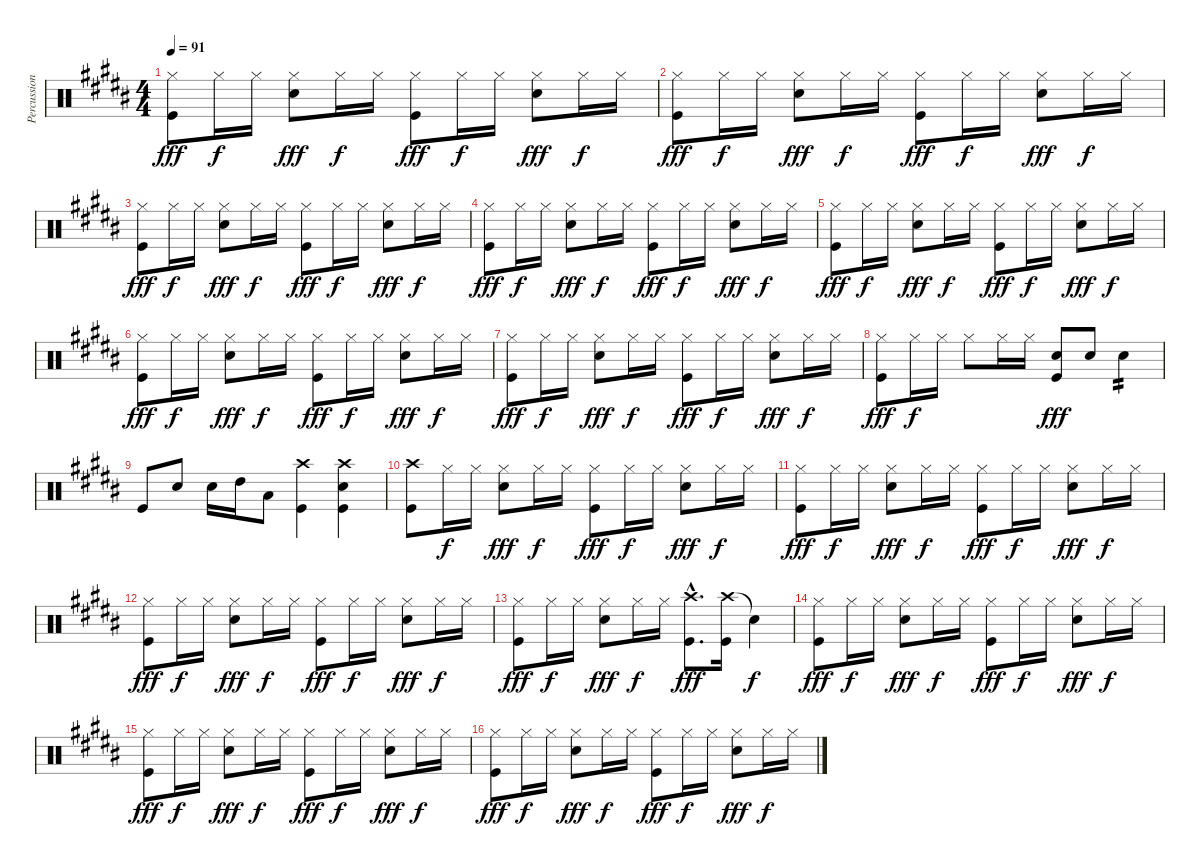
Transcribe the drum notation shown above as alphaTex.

\track ("Percussion" "Percussion") {instrument percussion}
\staff {score}
\articulation defaults
\ts (4 4)
\tempo 91
\clef neutral
\ks b
("Hi-Hat (closed)" "Kick (hit)").8{dy fff} "Hi-Hat (closed)".16{dy f} "Hi-Hat (closed)".16 ("Hi-Hat (closed)" "Electric Snare (hit)").8{dy fff} "Hi-Hat (closed)".16{dy f} "Hi-Hat (closed)".16 ("Hi-Hat (closed)" "Kick (hit)").8{dy fff} "Hi-Hat (closed)".16{dy f} "Hi-Hat (closed)".16 ("Hi-Hat (closed)" "Electric Snare (hit)").8{dy fff} "Hi-Hat (closed)".16{dy f} "Hi-Hat (closed)".16 |
("Hi-Hat (closed)" "Kick (hit)").8{dy fff} "Hi-Hat (closed)".16{dy f} "Hi-Hat (closed)".16 ("Hi-Hat (closed)" "Electric Snare (hit)").8{dy fff} "Hi-Hat (closed)".16{dy f} "Hi-Hat (closed)".16 ("Hi-Hat (closed)" "Kick (hit)").8{dy fff} "Hi-Hat (closed)".16{dy f} "Hi-Hat (closed)".16 ("Hi-Hat (closed)" "Electric Snare (hit)").8{dy fff} "Hi-Hat (closed)".16{dy f} "Hi-Hat (closed)".16 |
("Hi-Hat (closed)" "Kick (hit)").8{dy fff} "Hi-Hat (closed)".16{dy f} "Hi-Hat (closed)".16 ("Hi-Hat (closed)" "Electric Snare (hit)").8{dy fff} "Hi-Hat (closed)".16{dy f} "Hi-Hat (closed)".16 ("Hi-Hat (closed)" "Kick (hit)").8{dy fff} "Hi-Hat (closed)".16{dy f} "Hi-Hat (closed)".16 ("Hi-Hat (closed)" "Electric Snare (hit)").8{dy fff} "Hi-Hat (closed)".16{dy f} "Hi-Hat (closed)".16 |
("Hi-Hat (closed)" "Kick (hit)").8{dy fff} "Hi-Hat (closed)".16{dy f} "Hi-Hat (closed)".16 ("Hi-Hat (closed)" "Electric Snare (hit)").8{dy fff} "Hi-Hat (closed)".16{dy f} "Hi-Hat (closed)".16 ("Hi-Hat (closed)" "Kick (hit)").8{dy fff} "Hi-Hat (closed)".16{dy f} "Hi-Hat (closed)".16 ("Hi-Hat (closed)" "Electric Snare (hit)").8{dy fff} "Hi-Hat (closed)".16{dy f} "Hi-Hat (closed)".16 |
("Hi-Hat (closed)" "Kick (hit)").8{dy fff} "Hi-Hat (closed)".16{dy f} "Hi-Hat (closed)".16 ("Hi-Hat (closed)" "Electric Snare (hit)").8{dy fff} "Hi-Hat (closed)".16{dy f} "Hi-Hat (closed)".16 ("Hi-Hat (closed)" "Kick (hit)").8{dy fff} "Hi-Hat (closed)".16{dy f} "Hi-Hat (closed)".16 ("Hi-Hat (closed)" "Electric Snare (hit)").8{dy fff} "Hi-Hat (closed)".16{dy f} "Hi-Hat (closed)".16 |
("Hi-Hat (closed)" "Kick (hit)").8{dy fff} "Hi-Hat (closed)".16{dy f} "Hi-Hat (closed)".16 ("Hi-Hat (closed)" "Electric Snare (hit)").8{dy fff} "Hi-Hat (closed)".16{dy f} "Hi-Hat (closed)".16 ("Hi-Hat (closed)" "Kick (hit)").8{dy fff} "Hi-Hat (closed)".16{dy f} "Hi-Hat (closed)".16 ("Hi-Hat (closed)" "Electric Snare (hit)").8{dy fff} "Hi-Hat (closed)".16{dy f} "Hi-Hat (closed)".16 |
("Hi-Hat (closed)" "Kick (hit)").8{dy fff} "Hi-Hat (closed)".16{dy f} "Hi-Hat (closed)".16 ("Hi-Hat (closed)" "Electric Snare (hit)").8{dy fff} "Hi-Hat (closed)".16{dy f} "Hi-Hat (closed)".16 ("Hi-Hat (closed)" "Kick (hit)").8{dy fff} "Hi-Hat (closed)".16{dy f} "Hi-Hat (closed)".16 ("Hi-Hat (closed)" "Electric Snare (hit)").8{dy fff} "Hi-Hat (closed)".16{dy f} "Hi-Hat (closed)".16 |
("Hi-Hat (closed)" "Kick (hit)").8{dy fff} "Hi-Hat (closed)".16{dy f} "Hi-Hat (closed)".16 "Hi-Hat (closed)".8 "Hi-Hat (closed)".16 "Hi-Hat (closed)".16 ("Electric Snare (hit)" "Kick (hit)").8{dy fff} "Electric Snare (hit)".8 "Electric Snare (hit)".4{tp 2} |
"Kick (hit)".8 "Electric Snare (hit)".8 "Electric Snare (hit)".16 "High Tom (hit)".16 "Low Floor Tom (hit)".8 ("Crash high (hit)" "Kick (hit)").4 ("Crash high (hit)" "Electric Snare (hit)" "Kick (hit)").4 |
("Crash high (hit)" "Kick (hit)").8 "Hi-Hat (closed)".16{dy f} "Hi-Hat (closed)".16 ("Hi-Hat (closed)" "Electric Snare (hit)").8{dy fff} "Hi-Hat (closed)".16{dy f} "Hi-Hat (closed)".16 ("Hi-Hat (closed)" "Kick (hit)").8{dy fff} "Hi-Hat (closed)".16{dy f} "Hi-Hat (closed)".16 ("Hi-Hat (closed)" "Electric Snare (hit)").8{dy fff} "Hi-Hat (closed)".16{dy f} "Hi-Hat (closed)".16 |
("Hi-Hat (closed)" "Kick (hit)").8{dy fff} "Hi-Hat (closed)".16{dy f} "Hi-Hat (closed)".16 ("Hi-Hat (closed)" "Electric Snare (hit)").8{dy fff} "Hi-Hat (closed)".16{dy f} "Hi-Hat (closed)".16 ("Hi-Hat (closed)" "Kick (hit)").8{dy fff} "Hi-Hat (closed)".16{dy f} "Hi-Hat (closed)".16 ("Hi-Hat (closed)" "Electric Snare (hit)").8{dy fff} "Hi-Hat (closed)".16{dy f} "Hi-Hat (closed)".16 |
("Hi-Hat (closed)" "Kick (hit)").8{dy fff} "Hi-Hat (closed)".16{dy f} "Hi-Hat (closed)".16 ("Hi-Hat (closed)" "Electric Snare (hit)").8{dy fff} "Hi-Hat (closed)".16{dy f} "Hi-Hat (closed)".16 ("Hi-Hat (closed)" "Kick (hit)").8{dy fff} "Hi-Hat (closed)".16{dy f} "Hi-Hat (closed)".16 ("Hi-Hat (closed)" "Electric Snare (hit)").8{dy fff} "Hi-Hat (closed)".16{dy f} "Hi-Hat (closed)".16 |
("Hi-Hat (closed)" "Kick (hit)").8{dy fff} "Hi-Hat (closed)".16{dy f} "Hi-Hat (closed)".16 ("Hi-Hat (closed)" "Electric Snare (hit)").8{dy fff} "Hi-Hat (closed)".16{dy f} "Hi-Hat (closed)".16 ("Crash high (hit)"{hac} "Kick (hit)"{hac}).8{d dy fff} ("Crash high (hit)" "Kick (hit)").16 "Snare (hit)"{t}.4{dy f} |
("Hi-Hat (closed)" "Kick (hit)").8{dy fff} "Hi-Hat (closed)".16{dy f} "Hi-Hat (closed)".16 ("Hi-Hat (closed)" "Electric Snare (hit)").8{dy fff} "Hi-Hat (closed)".16{dy f} "Hi-Hat (closed)".16 ("Hi-Hat (closed)" "Kick (hit)").8{dy fff} "Hi-Hat (closed)".16{dy f} "Hi-Hat (closed)".16 ("Hi-Hat (closed)" "Electric Snare (hit)").8{dy fff} "Hi-Hat (closed)".16{dy f} "Hi-Hat (closed)".16 |
("Hi-Hat (closed)" "Kick (hit)").8{dy fff} "Hi-Hat (closed)".16{dy f} "Hi-Hat (closed)".16 ("Hi-Hat (closed)" "Electric Snare (hit)").8{dy fff} "Hi-Hat (closed)".16{dy f} "Hi-Hat (closed)".16 ("Hi-Hat (closed)" "Kick (hit)").8{dy fff} "Hi-Hat (closed)".16{dy f} "Hi-Hat (closed)".16 ("Hi-Hat (closed)" "Electric Snare (hit)").8{dy fff} "Hi-Hat (closed)".16{dy f} "Hi-Hat (closed)".16 |
("Hi-Hat (closed)" "Kick (hit)").8{dy fff} "Hi-Hat (closed)".16{dy f} "Hi-Hat (closed)".16 ("Hi-Hat (closed)" "Electric Snare (hit)").8{dy fff} "Hi-Hat (closed)".16{dy f} "Hi-Hat (closed)".16 ("Hi-Hat (closed)" "Kick (hit)").8{dy fff} "Hi-Hat (closed)".16{dy f} "Hi-Hat (closed)".16 ("Hi-Hat (closed)" "Electric Snare (hit)").8{dy fff} "Hi-Hat (closed)".16{dy f} "Hi-Hat (closed)".16
